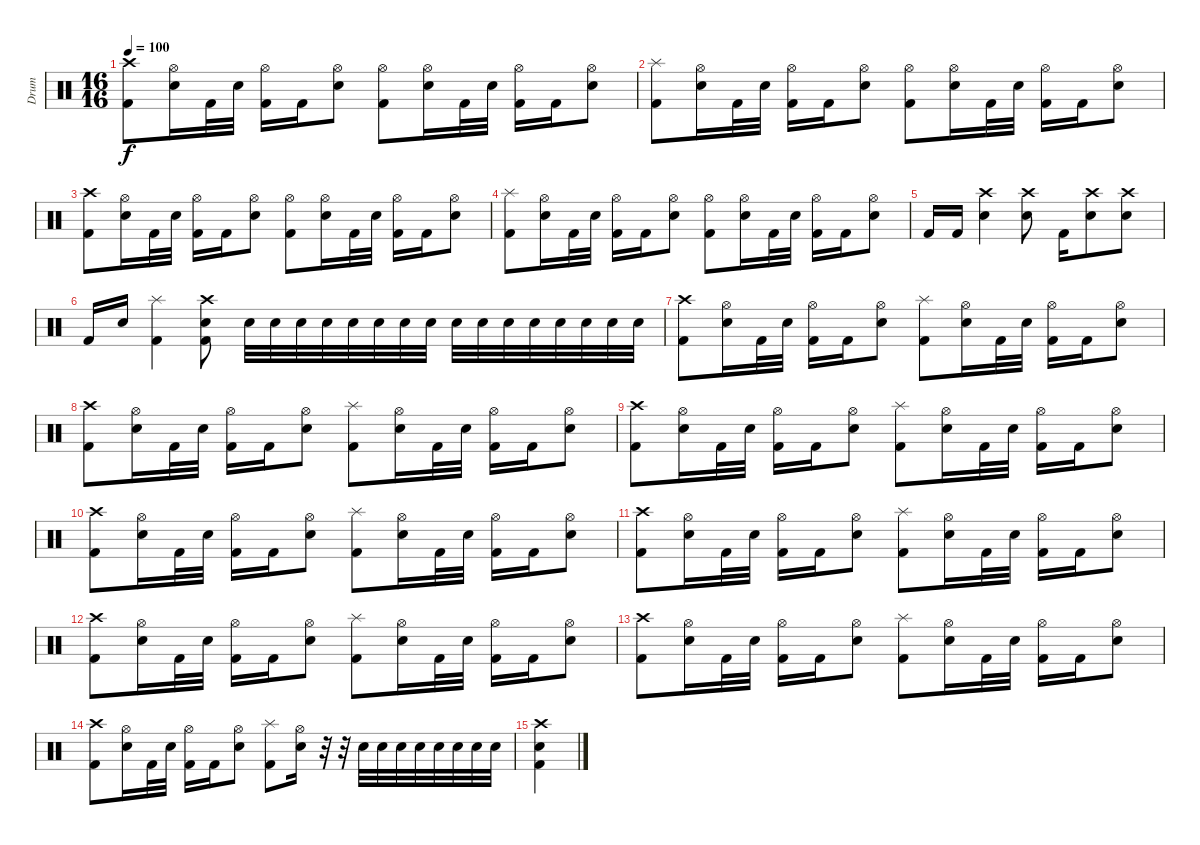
\track ("Drum" "Drum") {instrument percussion}
\staff {score}
\articulation defaults
\ts (16 16)
\tempo 100
\clef neutral
\ks aminor
("Crash high (hit)" "Kick (hit) 2").8{dy f} ("Hi-Hat (open)" "Snare (hit) 2").16 "Kick (hit) 2".32 "Snare (hit) 2".32 ("Hi-Hat (open)" "Kick (hit) 2").16 "Kick (hit) 2".16 ("Hi-Hat (open)" "Snare (hit) 2").8 ("Hi-Hat (open)" "Kick (hit) 2").8 ("Hi-Hat (open)" "Snare (hit) 2").16 "Kick (hit) 2".32 "Snare (hit) 2".32 ("Hi-Hat (open)" "Kick (hit) 2").16 "Kick (hit) 2".16 ("Hi-Hat (open)" "Snare (hit) 2").8 |
("Splash (hit)" "Kick (hit) 2").8 ("Hi-Hat (open)" "Snare (hit) 2").16 "Kick (hit) 2".32 "Snare (hit) 2".32 ("Hi-Hat (open)" "Kick (hit) 2").16 "Kick (hit) 2".16 ("Hi-Hat (open)" "Snare (hit) 2").8 ("Hi-Hat (open)" "Kick (hit) 2").8 ("Hi-Hat (open)" "Snare (hit) 2").16 "Kick (hit) 2".32 "Snare (hit) 2".32 ("Hi-Hat (open)" "Kick (hit) 2").16 "Kick (hit) 2".16 ("Hi-Hat (open)" "Snare (hit) 2").8 |
("Crash high (hit)" "Kick (hit) 2").8 ("Hi-Hat (open)" "Snare (hit) 2").16 "Kick (hit) 2".32 "Snare (hit) 2".32 ("Hi-Hat (open)" "Kick (hit) 2").16 "Kick (hit) 2".16 ("Hi-Hat (open)" "Snare (hit) 2").8 ("Hi-Hat (open)" "Kick (hit) 2").8 ("Hi-Hat (open)" "Snare (hit) 2").16 "Kick (hit) 2".32 "Snare (hit) 2".32 ("Hi-Hat (open)" "Kick (hit) 2").16 "Kick (hit) 2".16 ("Hi-Hat (open)" "Snare (hit) 2").8 |
("Splash (hit)" "Kick (hit) 2").8 ("Hi-Hat (open)" "Snare (hit) 2").16 "Kick (hit) 2".32 "Snare (hit) 2".32 ("Hi-Hat (open)" "Kick (hit) 2").16 "Kick (hit) 2".16 ("Hi-Hat (open)" "Snare (hit) 2").8 ("Hi-Hat (open)" "Kick (hit) 2").8 ("Hi-Hat (open)" "Snare (hit) 2").16 "Kick (hit) 2".32 "Snare (hit) 2".32 ("Hi-Hat (open)" "Kick (hit) 2").16 "Kick (hit) 2".16 ("Hi-Hat (open)" "Snare (hit) 2").8 |
"Kick (hit) 2".16 "Kick (hit) 2".16 ("Crash high (hit)" "Snare (hit) 2").4 ("Crash high (hit)" "Snare (hit) 2").8 "Kick (hit) 2".16 ("Crash high (hit)" "Snare (hit) 2").8 ("Crash high (hit)" "Snare (hit) 2").8 |
"Kick (hit) 2".16 "Snare (hit) 2".16 ("Splash (hit)" "Kick (hit) 2").4 ("Crash high (hit)" "Kick (hit) 2" "Snare (hit) 2").8 "Snare (hit) 2".32 "Snare (hit) 2".32 "Snare (hit) 2".32 "Snare (hit) 2".32 "Snare (hit) 2".32 "Snare (hit) 2".32 "Snare (hit) 2".32 "Snare (hit) 2".32 "Snare (hit) 2".32 "Snare (hit) 2".32 "Snare (hit) 2".32 "Snare (hit) 2".32 "Snare (hit) 2".32 "Snare (hit) 2".32 "Snare (hit) 2".32 "Snare (hit) 2".32 |
("Crash high (hit)" "Kick (hit) 2").8 ("Hi-Hat (open)" "Snare (hit) 2").16 "Kick (hit) 2".32 "Snare (hit) 2".32 ("Hi-Hat (open)" "Kick (hit) 2").16 "Kick (hit) 2".16 ("Hi-Hat (open)" "Snare (hit) 2").8 ("Splash (hit)" "Kick (hit) 2").8 ("Hi-Hat (open)" "Snare (hit) 2").16 "Kick (hit) 2".32 "Snare (hit) 2".32 ("Hi-Hat (open)" "Kick (hit) 2").16 "Kick (hit) 2".16 ("Hi-Hat (open)" "Snare (hit) 2").8 |
("Crash high (hit)" "Kick (hit) 2").8 ("Hi-Hat (open)" "Snare (hit) 2").16 "Kick (hit) 2".32 "Snare (hit) 2".32 ("Hi-Hat (open)" "Kick (hit) 2").16 "Kick (hit) 2".16 ("Hi-Hat (open)" "Snare (hit) 2").8 ("Splash (hit)" "Kick (hit) 2").8 ("Hi-Hat (open)" "Snare (hit) 2").16 "Kick (hit) 2".32 "Snare (hit) 2".32 ("Hi-Hat (open)" "Kick (hit) 2").16 "Kick (hit) 2".16 ("Hi-Hat (open)" "Snare (hit) 2").8 |
("Crash high (hit)" "Kick (hit) 2").8 ("Hi-Hat (open)" "Snare (hit) 2").16 "Kick (hit) 2".32 "Snare (hit) 2".32 ("Hi-Hat (open)" "Kick (hit) 2").16 "Kick (hit) 2".16 ("Hi-Hat (open)" "Snare (hit) 2").8 ("Splash (hit)" "Kick (hit) 2").8 ("Hi-Hat (open)" "Snare (hit) 2").16 "Kick (hit) 2".32 "Snare (hit) 2".32 ("Hi-Hat (open)" "Kick (hit) 2").16 "Kick (hit) 2".16 ("Hi-Hat (open)" "Snare (hit) 2").8 |
("Crash high (hit)" "Kick (hit) 2").8 ("Hi-Hat (open)" "Snare (hit) 2").16 "Kick (hit) 2".32 "Snare (hit) 2".32 ("Hi-Hat (open)" "Kick (hit) 2").16 "Kick (hit) 2".16 ("Hi-Hat (open)" "Snare (hit) 2").8 ("Splash (hit)" "Kick (hit) 2").8 ("Hi-Hat (open)" "Snare (hit) 2").16 "Kick (hit) 2".32 "Snare (hit) 2".32 ("Hi-Hat (open)" "Kick (hit) 2").16 "Kick (hit) 2".16 ("Hi-Hat (open)" "Snare (hit) 2").8 |
("Crash high (hit)" "Kick (hit) 2").8 ("Hi-Hat (open)" "Snare (hit) 2").16 "Kick (hit) 2".32 "Snare (hit) 2".32 ("Hi-Hat (open)" "Kick (hit) 2").16 "Kick (hit) 2".16 ("Hi-Hat (open)" "Snare (hit) 2").8 ("Splash (hit)" "Kick (hit) 2").8 ("Hi-Hat (open)" "Snare (hit) 2").16 "Kick (hit) 2".32 "Snare (hit) 2".32 ("Hi-Hat (open)" "Kick (hit) 2").16 "Kick (hit) 2".16 ("Hi-Hat (open)" "Snare (hit) 2").8 |
("Crash high (hit)" "Kick (hit) 2").8 ("Hi-Hat (open)" "Snare (hit) 2").16 "Kick (hit) 2".32 "Snare (hit) 2".32 ("Hi-Hat (open)" "Kick (hit) 2").16 "Kick (hit) 2".16 ("Hi-Hat (open)" "Snare (hit) 2").8 ("Splash (hit)" "Kick (hit) 2").8 ("Hi-Hat (open)" "Snare (hit) 2").16 "Kick (hit) 2".32 "Snare (hit) 2".32 ("Hi-Hat (open)" "Kick (hit) 2").16 "Kick (hit) 2".16 ("Hi-Hat (open)" "Snare (hit) 2").8 |
("Crash high (hit)" "Kick (hit) 2").8 ("Hi-Hat (open)" "Snare (hit) 2").16 "Kick (hit) 2".32 "Snare (hit) 2".32 ("Hi-Hat (open)" "Kick (hit) 2").16 "Kick (hit) 2".16 ("Hi-Hat (open)" "Snare (hit) 2").8 ("Splash (hit)" "Kick (hit) 2").8 ("Hi-Hat (open)" "Snare (hit) 2").16 "Kick (hit) 2".32 "Snare (hit) 2".32 ("Hi-Hat (open)" "Kick (hit) 2").16 "Kick (hit) 2".16 ("Hi-Hat (open)" "Snare (hit) 2").8 |
("Crash high (hit)" "Kick (hit) 2").8 ("Hi-Hat (open)" "Snare (hit) 2").16 "Kick (hit) 2".32 "Snare (hit) 2".32 ("Hi-Hat (open)" "Kick (hit) 2").16 "Kick (hit) 2".16 ("Hi-Hat (open)" "Snare (hit) 2").8 ("Splash (hit)" "Kick (hit) 2").8 ("Hi-Hat (open)" "Snare (hit) 2").16 r.32 r.32 "Snare (hit) 2".32 "Snare (hit) 2".32 "Snare (hit) 2".32 "Snare (hit) 2".32 "Snare (hit) 2".32 "Snare (hit) 2".32 "Snare (hit) 2".32 "Snare (hit) 2".32 |
("Crash high (hit)" "Snare (hit) 2" "Kick (hit) 2").4
